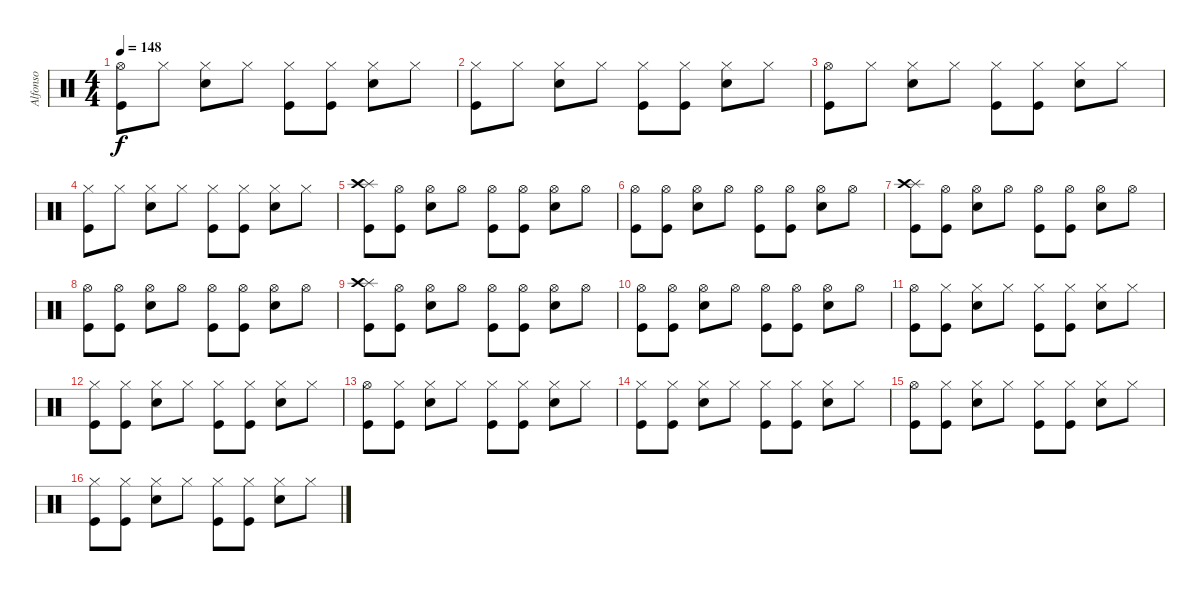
\track ("Alfonso" "Alfonso") {instrument percussion}
\staff {score}
\articulation defaults
\ts (4 4)
\tempo 148
\clef neutral
\ks c
("Kick (hit)" "Hi-Hat (open)").8{dy f} "Hi-Hat (closed)".8 ("Snare (hit) 2" "Hi-Hat (closed)").8 "Hi-Hat (closed)".8 ("Kick (hit)" "Hi-Hat (closed)").8 ("Kick (hit)" "Hi-Hat (closed)").8 ("Snare (hit) 2" "Hi-Hat (closed)").8 "Hi-Hat (closed)".8 |
("Kick (hit)" "Hi-Hat (closed)").8 "Hi-Hat (closed)".8 ("Snare (hit) 2" "Hi-Hat (closed)").8 "Hi-Hat (closed)".8 ("Kick (hit)" "Hi-Hat (closed)").8 ("Kick (hit)" "Hi-Hat (closed)").8 ("Snare (hit) 2" "Hi-Hat (closed)").8 "Hi-Hat (closed)".8 |
("Kick (hit)" "Hi-Hat (open)").8 "Hi-Hat (closed)".8 ("Snare (hit) 2" "Hi-Hat (closed)").8 "Hi-Hat (closed)".8 ("Kick (hit)" "Hi-Hat (closed)").8 ("Kick (hit)" "Hi-Hat (closed)").8 ("Snare (hit) 2" "Hi-Hat (closed)").8 "Hi-Hat (closed)".8 |
("Kick (hit)" "Hi-Hat (closed)").8 "Hi-Hat (closed)".8 ("Snare (hit) 2" "Hi-Hat (closed)").8 "Hi-Hat (closed)".8 ("Kick (hit)" "Hi-Hat (closed)").8 ("Kick (hit)" "Hi-Hat (closed)").8 ("Snare (hit) 2" "Hi-Hat (closed)").8 "Hi-Hat (closed)".8 |
("Kick (hit)" "Splash (hit)" "Crash high (hit)").8 ("Kick (hit)" "Hi-Hat (open)").8 ("Snare (hit) 2" "Hi-Hat (open)").8 "Hi-Hat (open)".8 ("Kick (hit)" "Hi-Hat (open)").8 ("Kick (hit)" "Hi-Hat (open)").8 ("Snare (hit) 2" "Hi-Hat (open)").8 "Hi-Hat (open)".8 |
("Kick (hit)" "Hi-Hat (open)").8 ("Kick (hit)" "Hi-Hat (open)").8 ("Snare (hit) 2" "Hi-Hat (open)").8 "Hi-Hat (open)".8 ("Kick (hit)" "Hi-Hat (open)").8 ("Kick (hit)" "Hi-Hat (open)").8 ("Snare (hit) 2" "Hi-Hat (open)").8 "Hi-Hat (open)".8 |
("Kick (hit)" "Splash (hit)" "Crash high (hit)").8 ("Kick (hit)" "Hi-Hat (open)").8 ("Snare (hit) 2" "Hi-Hat (open)").8 "Hi-Hat (open)".8 ("Kick (hit)" "Hi-Hat (open)").8 ("Kick (hit)" "Hi-Hat (open)").8 ("Snare (hit) 2" "Hi-Hat (open)").8 "Hi-Hat (open)".8 |
("Kick (hit)" "Hi-Hat (open)").8 ("Kick (hit)" "Hi-Hat (open)").8 ("Snare (hit) 2" "Hi-Hat (open)").8 "Hi-Hat (open)".8 ("Kick (hit)" "Hi-Hat (open)").8 ("Kick (hit)" "Hi-Hat (open)").8 ("Snare (hit) 2" "Hi-Hat (open)").8 "Hi-Hat (open)".8 |
("Kick (hit)" "Splash (hit)" "Crash high (hit)").8 ("Kick (hit)" "Hi-Hat (open)").8 ("Snare (hit) 2" "Hi-Hat (open)").8 "Hi-Hat (open)".8 ("Kick (hit)" "Hi-Hat (open)").8 ("Kick (hit)" "Hi-Hat (open)").8 ("Snare (hit) 2" "Hi-Hat (open)").8 "Hi-Hat (open)".8 |
("Kick (hit)" "Hi-Hat (open)").8 ("Kick (hit)" "Hi-Hat (open)").8 ("Snare (hit) 2" "Hi-Hat (open)").8 "Hi-Hat (open)".8 ("Kick (hit)" "Hi-Hat (open)").8 ("Kick (hit)" "Hi-Hat (open)").8 ("Snare (hit) 2" "Hi-Hat (open)").8 "Hi-Hat (open)".8 |
("Kick (hit)" "Hi-Hat (open)").8 ("Kick (hit)" "Hi-Hat (closed)").8 ("Snare (hit) 2" "Hi-Hat (closed)").8 "Hi-Hat (closed)".8 ("Kick (hit)" "Hi-Hat (closed)").8 ("Kick (hit)" "Hi-Hat (closed)").8 ("Snare (hit) 2" "Hi-Hat (closed)").8 "Hi-Hat (closed)".8 |
("Kick (hit)" "Hi-Hat (closed)").8 ("Kick (hit)" "Hi-Hat (closed)").8 ("Snare (hit) 2" "Hi-Hat (closed)").8 "Hi-Hat (closed)".8 ("Kick (hit)" "Hi-Hat (closed)").8 ("Kick (hit)" "Hi-Hat (closed)").8 ("Snare (hit) 2" "Hi-Hat (closed)").8 "Hi-Hat (closed)".8 |
("Kick (hit)" "Hi-Hat (open)").8 ("Kick (hit)" "Hi-Hat (closed)").8 ("Snare (hit) 2" "Hi-Hat (closed)").8 "Hi-Hat (closed)".8 ("Kick (hit)" "Hi-Hat (closed)").8 ("Kick (hit)" "Hi-Hat (closed)").8 ("Snare (hit) 2" "Hi-Hat (closed)").8 "Hi-Hat (closed)".8 |
("Kick (hit)" "Hi-Hat (closed)").8 ("Kick (hit)" "Hi-Hat (closed)").8 ("Snare (hit) 2" "Hi-Hat (closed)").8 "Hi-Hat (closed)".8 ("Kick (hit)" "Hi-Hat (closed)").8 ("Kick (hit)" "Hi-Hat (closed)").8 ("Snare (hit) 2" "Hi-Hat (closed)").8 "Hi-Hat (closed)".8 |
("Kick (hit)" "Hi-Hat (open)").8 ("Kick (hit)" "Hi-Hat (closed)").8 ("Snare (hit) 2" "Hi-Hat (closed)").8 "Hi-Hat (closed)".8 ("Kick (hit)" "Hi-Hat (closed)").8 ("Kick (hit)" "Hi-Hat (closed)").8 ("Snare (hit) 2" "Hi-Hat (closed)").8 "Hi-Hat (closed)".8 |
("Kick (hit)" "Hi-Hat (closed)").8 ("Kick (hit)" "Hi-Hat (closed)").8 ("Snare (hit) 2" "Hi-Hat (closed)").8 "Hi-Hat (closed)".8 ("Kick (hit)" "Hi-Hat (closed)").8 ("Kick (hit)" "Hi-Hat (closed)").8 ("Snare (hit) 2" "Hi-Hat (closed)").8 "Hi-Hat (closed)".8
